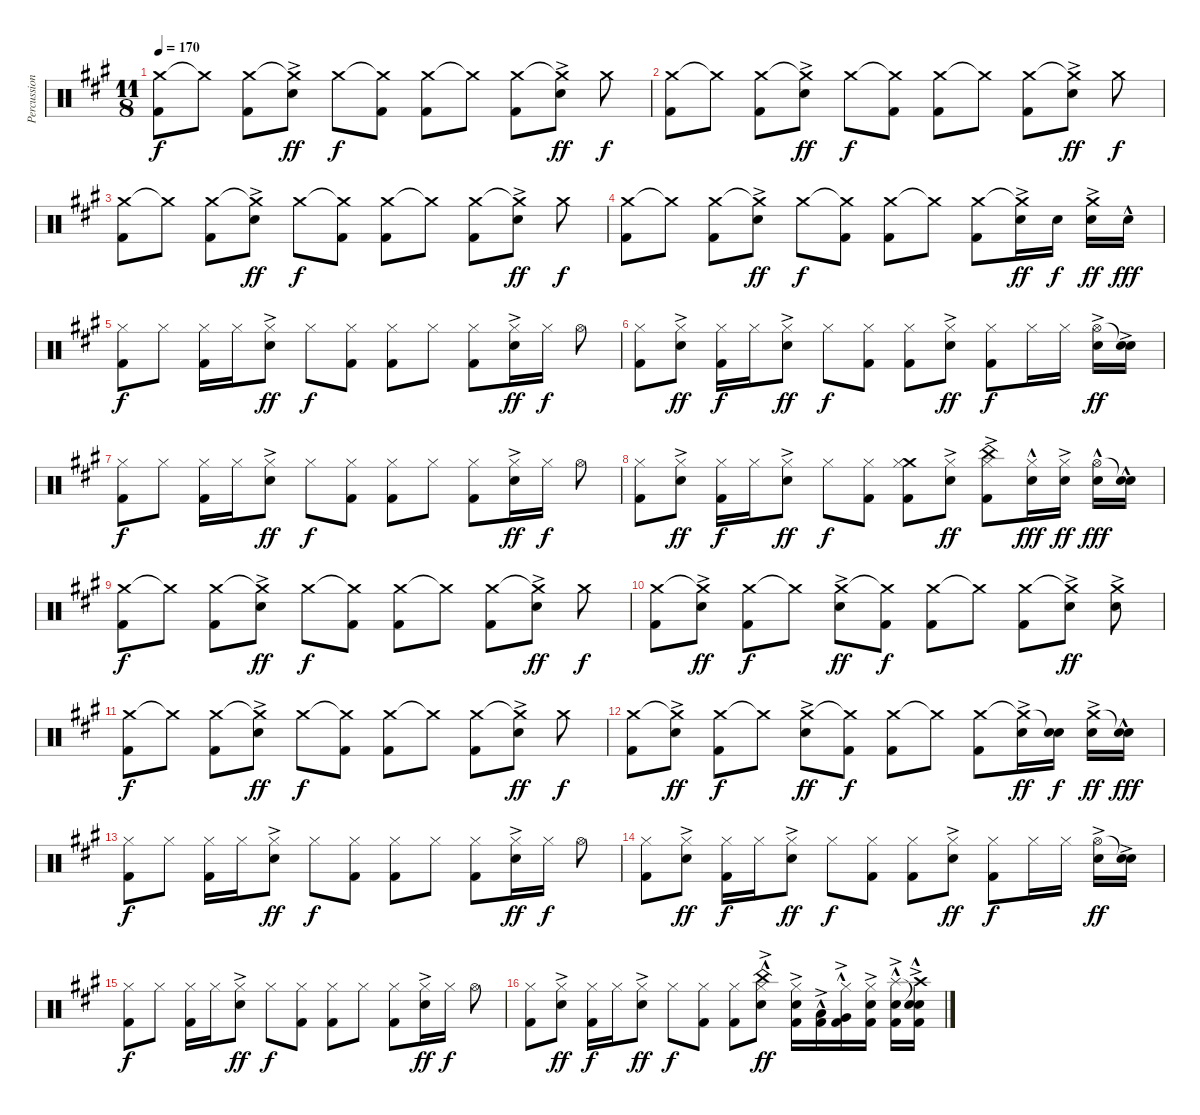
\track ("Percussion" "Percussion") {instrument percussion}
\staff {score}
\articulation defaults
\ts (11 8)
\tempo 170
\clef neutral
\ks f#minor
("Crash medium (hit)" "Kick (hit) 2").8{dy f} "Crash medium (hit)"{t}.8 ("Crash medium (hit)" "Kick (hit) 2").8 ("Crash medium (hit)"{t} "Electric Snare (hit)"{ac}).8{dy ff} "Crash medium (hit)".8{dy f} ("Crash medium (hit)"{t} "Kick (hit) 2").8 ("Crash medium (hit)" "Kick (hit) 2").8 "Crash medium (hit)"{t}.8 ("Crash medium (hit)" "Kick (hit) 2").8 ("Crash medium (hit)"{t} "Electric Snare (hit)"{ac}).8{dy ff} "Crash medium (hit)".8{dy f} |
("Crash medium (hit)" "Kick (hit) 2").8 "Crash medium (hit)"{t}.8 ("Crash medium (hit)" "Kick (hit) 2").8 ("Crash medium (hit)"{t} "Electric Snare (hit)"{ac}).8{dy ff} "Crash medium (hit)".8{dy f} ("Crash medium (hit)"{t} "Kick (hit) 2").8 ("Crash medium (hit)" "Kick (hit) 2").8 "Crash medium (hit)"{t}.8 ("Crash medium (hit)" "Kick (hit) 2").8 ("Crash medium (hit)"{t} "Electric Snare (hit)"{ac}).8{dy ff} "Crash medium (hit)".8{dy f} |
("Crash medium (hit)" "Kick (hit) 2").8 "Crash medium (hit)"{t}.8 ("Crash medium (hit)" "Kick (hit) 2").8 ("Crash medium (hit)"{t} "Electric Snare (hit)"{ac}).8{dy ff} "Crash medium (hit)".8{dy f} ("Crash medium (hit)"{t} "Kick (hit) 2").8 ("Crash medium (hit)" "Kick (hit) 2").8 "Crash medium (hit)"{t}.8 ("Crash medium (hit)" "Kick (hit) 2").8 ("Crash medium (hit)"{t} "Electric Snare (hit)"{ac}).8{dy ff} "Crash medium (hit)".8{dy f} |
("Crash medium (hit)" "Kick (hit) 2").8 "Crash medium (hit)"{t}.8 ("Crash medium (hit)" "Kick (hit) 2").8 ("Crash medium (hit)"{t} "Electric Snare (hit)"{ac}).8{dy ff} "Crash medium (hit)".8{dy f} ("Crash medium (hit)"{t} "Kick (hit) 2").8 ("Crash medium (hit)" "Kick (hit) 2").8 "Crash medium (hit)"{t}.8 ("Crash medium (hit)" "Kick (hit) 2").8 ("Crash medium (hit)"{t} "Electric Snare (hit)"{ac}).16{dy ff} "Electric Snare (hit)".16{dy f} ("Crash medium (hit)" "Electric Snare (hit)"{ac}).16{dy ff} "Electric Snare (hit)"{hac}.16{dy fff} |
("Hi-Hat (closed)" "Kick (hit) 2").8{dy f} "Hi-Hat (closed)".8 ("Hi-Hat (closed)" "Kick (hit) 2").16 "Hi-Hat (closed)".16 ("Hi-Hat (closed)" "Electric Snare (hit)"{ac}).8{dy ff} "Hi-Hat (closed)".8{dy f} ("Hi-Hat (closed)" "Kick (hit) 2").8 ("Hi-Hat (closed)" "Kick (hit) 2").8 "Hi-Hat (closed)".8 ("Hi-Hat (closed)" "Kick (hit) 2").8 ("Hi-Hat (closed)" "Electric Snare (hit)"{ac}).16{dy ff} "Hi-Hat (closed)".16{dy f} "Hi-Hat (open)".8 |
("Hi-Hat (closed)" "Kick (hit) 2").8 ("Hi-Hat (closed)" "Electric Snare (hit)"{ac}).8{dy ff} ("Hi-Hat (closed)" "Kick (hit) 2").16{dy f} "Hi-Hat (closed)".16 ("Hi-Hat (closed)" "Electric Snare (hit)"{ac}).8{dy ff} "Hi-Hat (closed)".8{dy f} ("Hi-Hat (closed)" "Kick (hit) 2").8 ("Hi-Hat (closed)" "Kick (hit) 2").8 ("Hi-Hat (closed)" "Electric Snare (hit)"{ac}).8{dy ff} ("Hi-Hat (closed)" "Kick (hit) 2").8{dy f} "Hi-Hat (closed)".16 "Hi-Hat (closed)".16 ("Hi-Hat (open)" "Electric Snare (hit)"{ac}).16{dy ff} ("Snare (hit)"{t} "Electric Snare (hit)"{ac}).16 |
("Hi-Hat (closed)" "Kick (hit) 2").8{dy f} "Hi-Hat (closed)".8 ("Hi-Hat (closed)" "Kick (hit) 2").16 "Hi-Hat (closed)".16 ("Hi-Hat (closed)" "Electric Snare (hit)"{ac}).8{dy ff} "Hi-Hat (closed)".8{dy f} ("Hi-Hat (closed)" "Kick (hit) 2").8 ("Hi-Hat (closed)" "Kick (hit) 2").8 "Hi-Hat (closed)".8 ("Hi-Hat (closed)" "Kick (hit) 2").8 ("Hi-Hat (closed)" "Electric Snare (hit)"{ac}).16{dy ff} "Hi-Hat (closed)".16{dy f} "Hi-Hat (open)".8 |
("Hi-Hat (closed)" "Kick (hit) 2").8 ("Hi-Hat (closed)" "Electric Snare (hit)"{ac}).8{dy ff} ("Hi-Hat (closed)" "Kick (hit) 2").16{dy f} "Hi-Hat (closed)".16 ("Hi-Hat (closed)" "Electric Snare (hit)"{ac}).8{dy ff} "Hi-Hat (closed)".8{dy f} ("Hi-Hat (closed)" "Kick (hit) 2").8 ("Crash medium (hit)" "Hi-Hat (closed)" "Kick (hit) 2").8 ("Hi-Hat (closed)" "Electric Snare (hit)"{ac}).8{dy ff} ("Hi-Hat (closed)" "China (hit)"{ac} "Kick (hit) 2").8 ("Hi-Hat (closed)" "Snare (hit) 2"{hac}).16{dy fff} ("Hi-Hat (closed)" "Electric Snare (hit)"{ac}).16{dy ff} ("Hi-Hat (open)" "Electric Snare (hit)"{hac}).16{dy fff} ("Snare (hit)"{t} "Electric Snare (hit)"{hac}).16 |
("Crash medium (hit)" "Kick (hit) 2").8{dy f} "Crash medium (hit)"{t}.8 ("Crash medium (hit)" "Kick (hit) 2").8 ("Crash medium (hit)"{t} "Electric Snare (hit)"{ac}).8{dy ff} "Crash medium (hit)".8{dy f} ("Crash medium (hit)"{t} "Kick (hit) 2").8 ("Crash medium (hit)" "Kick (hit) 2").8 "Crash medium (hit)"{t}.8 ("Crash medium (hit)" "Kick (hit) 2").8 ("Crash medium (hit)"{t} "Electric Snare (hit)"{ac}).8{dy ff} "Crash medium (hit)".8{dy f} |
("Crash medium (hit)" "Kick (hit) 2").8 ("Crash medium (hit)"{t} "Electric Snare (hit)"{ac}).8{dy ff} ("Crash medium (hit)" "Kick (hit) 2").8{dy f} "Crash medium (hit)"{t}.8 ("Crash medium (hit)" "Electric Snare (hit)"{ac}).8{dy ff} ("Crash medium (hit)"{t} "Kick (hit) 2").8{dy f} ("Crash medium (hit)" "Kick (hit) 2").8 "Crash medium (hit)"{t}.8 ("Crash medium (hit)" "Kick (hit) 2").8 ("Crash medium (hit)"{t} "Electric Snare (hit)"{ac}).8{dy ff} ("Crash medium (hit)" "Electric Snare (hit)"{ac}).8 |
("Crash medium (hit)" "Kick (hit) 2").8{dy f} "Crash medium (hit)"{t}.8 ("Crash medium (hit)" "Kick (hit) 2").8 ("Crash medium (hit)"{t} "Electric Snare (hit)"{ac}).8{dy ff} "Crash medium (hit)".8{dy f} ("Crash medium (hit)"{t} "Kick (hit) 2").8 ("Crash medium (hit)" "Kick (hit) 2").8 "Crash medium (hit)"{t}.8 ("Crash medium (hit)" "Kick (hit) 2").8 ("Crash medium (hit)"{t} "Electric Snare (hit)"{ac}).8{dy ff} "Crash medium (hit)".8{dy f} |
("Crash medium (hit)" "Kick (hit) 2").8 ("Crash medium (hit)"{t} "Electric Snare (hit)"{ac}).8{dy ff} ("Crash medium (hit)" "Kick (hit) 2").8{dy f} "Crash medium (hit)"{t}.8 ("Crash medium (hit)" "Electric Snare (hit)"{ac}).8{dy ff} ("Crash medium (hit)"{t} "Kick (hit) 2").8{dy f} ("Crash medium (hit)" "Kick (hit) 2").8 "Crash medium (hit)"{t}.8 ("Crash medium (hit)" "Kick (hit) 2").8 ("Crash medium (hit)"{t} "Electric Snare (hit)"{ac}).16{dy ff} ("Snare (hit)"{t} "Electric Snare (hit)").16{dy f} ("Crash medium (hit)" "Electric Snare (hit)"{ac}).16{dy ff} ("Snare (hit)"{t} "Electric Snare (hit)"{hac}).16{dy fff} |
("Hi-Hat (closed)" "Kick (hit) 2").8{dy f} "Hi-Hat (closed)".8 ("Hi-Hat (closed)" "Kick (hit) 2").16 "Hi-Hat (closed)".16 ("Hi-Hat (closed)" "Electric Snare (hit)"{ac}).8{dy ff} "Hi-Hat (closed)".8{dy f} ("Hi-Hat (closed)" "Kick (hit) 2").8 ("Hi-Hat (closed)" "Kick (hit) 2").8 "Hi-Hat (closed)".8 ("Hi-Hat (closed)" "Kick (hit) 2").8 ("Hi-Hat (closed)" "Electric Snare (hit)"{ac}).16{dy ff} "Hi-Hat (closed)".16{dy f} "Hi-Hat (open)".8 |
("Hi-Hat (closed)" "Kick (hit) 2").8 ("Hi-Hat (closed)" "Electric Snare (hit)"{ac}).8{dy ff} ("Hi-Hat (closed)" "Kick (hit) 2").16{dy f} "Hi-Hat (closed)".16 ("Hi-Hat (closed)" "Electric Snare (hit)"{ac}).8{dy ff} "Hi-Hat (closed)".8{dy f} ("Hi-Hat (closed)" "Kick (hit) 2").8 ("Hi-Hat (closed)" "Kick (hit) 2").8 ("Hi-Hat (closed)" "Electric Snare (hit)"{ac}).8{dy ff} ("Hi-Hat (closed)" "Kick (hit) 2").8{dy f} "Hi-Hat (closed)".16 "Hi-Hat (closed)".16 ("Hi-Hat (open)" "Electric Snare (hit)"{ac}).16{dy ff} ("Snare (hit)"{t} "Electric Snare (hit)"{ac}).16 |
("Hi-Hat (closed)" "Kick (hit) 2").8{dy f} "Hi-Hat (closed)".8 ("Hi-Hat (closed)" "Kick (hit) 2").16 "Hi-Hat (closed)".16 ("Hi-Hat (closed)" "Electric Snare (hit)"{ac}).8{dy ff} "Hi-Hat (closed)".8{dy f} ("Hi-Hat (closed)" "Kick (hit) 2").8 ("Hi-Hat (closed)" "Kick (hit) 2").8 "Hi-Hat (closed)".8 ("Hi-Hat (closed)" "Kick (hit) 2").8 ("Hi-Hat (closed)" "Electric Snare (hit)"{ac}).16{dy ff} "Hi-Hat (closed)".16{dy f} "Hi-Hat (open)".8 |
("Hi-Hat (closed)" "Kick (hit) 2").8 ("Hi-Hat (closed)" "Electric Snare (hit)"{ac}).8{dy ff} ("Hi-Hat (closed)" "Kick (hit) 2").16{dy f} "Hi-Hat (closed)".16 ("Hi-Hat (closed)" "Electric Snare (hit)"{ac}).8{dy ff} "Hi-Hat (closed)".8{dy f} ("Hi-Hat (closed)" "Kick (hit) 2").8 ("Hi-Hat (closed)" "Kick (hit) 2").8 ("China (hit)"{hac} "Hi-Hat (closed)" "Electric Snare (hit)"{ac}).8{dy ff} ("Hi-Hat (closed)" "Electric Snare (hit)"{ac} "Kick (hit) 2"{ac}).16 ("Low Tom (hit)"{hac} "Kick (hit) 2"{ac}).16 ("Hi-Hat (closed)" "Very Low Tom (hit)"{hac} "Kick (hit) 2"{ac}).16 ("Hi-Hat (closed)" "Snare (hit) 2"{ac} "Kick (hit) 2"{ac}).16 ("Splash (hit)"{hac} "Electric Snare (hit)"{ac} "Kick (hit) 2"{ac}).16 ("Snare (hit)"{t} "Crash high (hit)"{ac} "Electric Snare (hit)"{hac} "Kick (hit) 2"{ac}).16
